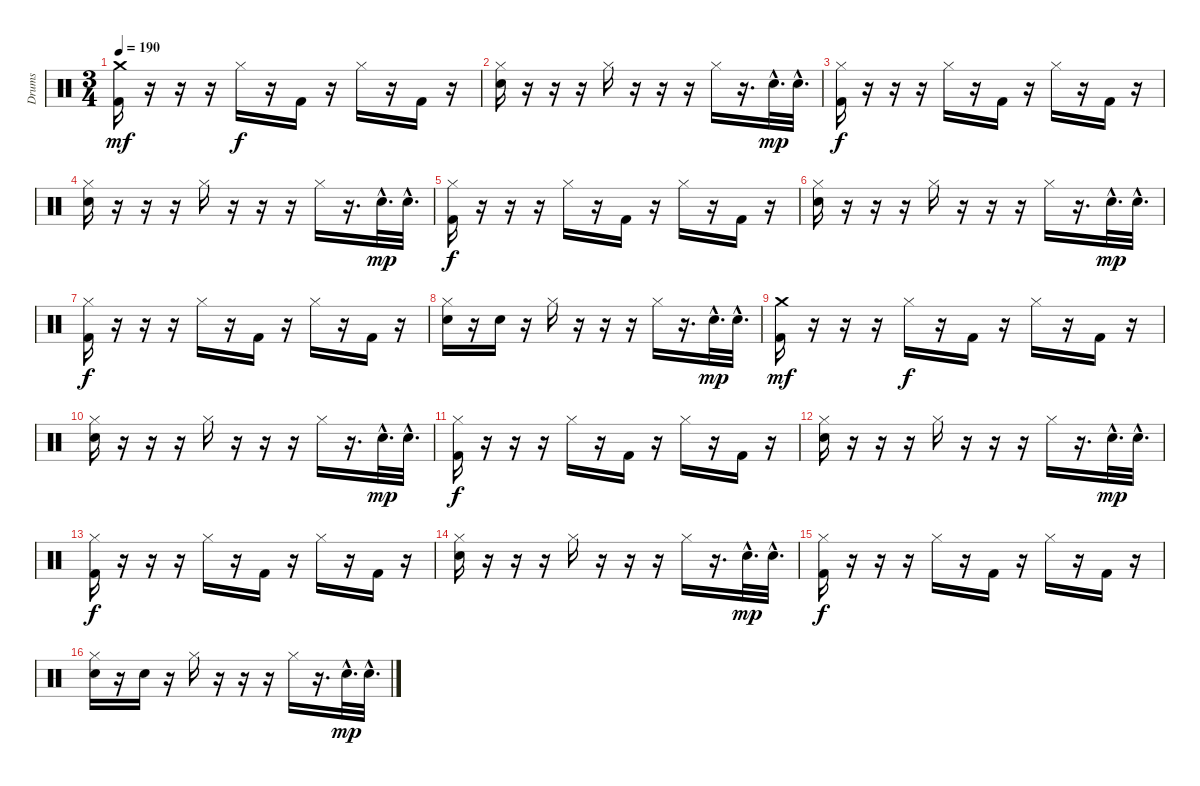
\track ("Drums" "Drums") {instrument percussion}
\staff {score}
\articulation defaults
\ts (3 4)
\tempo 190
\clef neutral
\ks c
("Crash medium (hit)" "Kick (hit) 2").16{dy mf} r.16 r.16 r.16 "Hi-Hat (closed)".16{dy f} r.16 "Kick (hit) 2".16 r.16 "Hi-Hat (closed)".16 r.16 "Kick (hit) 2".16 r.16 |
("Hi-Hat (closed)" "Snare (hit) 2").16 r.16 r.16 r.16 "Hi-Hat (closed)".16 r.16 r.16 r.16 "Hi-Hat (closed)".16 r.16{d} "Snare (hit) 2"{hac}.32{d dy mp} "Snare (hit) 2"{hac}.32{d} |
("Hi-Hat (closed)" "Kick (hit) 2").16{dy f} r.16 r.16 r.16 "Hi-Hat (closed)".16 r.16 "Kick (hit) 2".16 r.16 "Hi-Hat (closed)".16 r.16 "Kick (hit) 2".16 r.16 |
("Hi-Hat (closed)" "Snare (hit) 2").16 r.16 r.16 r.16 "Hi-Hat (closed)".16 r.16 r.16 r.16 "Hi-Hat (closed)".16 r.16{d} "Snare (hit) 2"{hac}.32{d dy mp} "Snare (hit) 2"{hac}.32{d} |
("Hi-Hat (closed)" "Kick (hit) 2").16{dy f} r.16 r.16 r.16 "Hi-Hat (closed)".16 r.16 "Kick (hit) 2".16 r.16 "Hi-Hat (closed)".16 r.16 "Kick (hit) 2".16 r.16 |
("Hi-Hat (closed)" "Snare (hit) 2").16 r.16 r.16 r.16 "Hi-Hat (closed)".16 r.16 r.16 r.16 "Hi-Hat (closed)".16 r.16{d} "Snare (hit) 2"{hac}.32{d dy mp} "Snare (hit) 2"{hac}.32{d} |
("Hi-Hat (closed)" "Kick (hit) 2").16{dy f} r.16 r.16 r.16 "Hi-Hat (closed)".16 r.16 "Kick (hit) 2".16 r.16 "Hi-Hat (closed)".16 r.16 "Kick (hit) 2".16 r.16 |
("Hi-Hat (closed)" "Snare (hit) 2").16 r.16 "Snare (hit) 2".16 r.16 "Hi-Hat (closed)".16 r.16 r.16 r.16 "Hi-Hat (closed)".16 r.16{d} "Snare (hit) 2"{hac}.32{d dy mp} "Snare (hit) 2"{hac}.32{d} |
("Crash medium (hit)" "Kick (hit) 2").16{dy mf} r.16 r.16 r.16 "Hi-Hat (closed)".16{dy f} r.16 "Kick (hit) 2".16 r.16 "Hi-Hat (closed)".16 r.16 "Kick (hit) 2".16 r.16 |
("Hi-Hat (closed)" "Snare (hit) 2").16 r.16 r.16 r.16 "Hi-Hat (closed)".16 r.16 r.16 r.16 "Hi-Hat (closed)".16 r.16{d} "Snare (hit) 2"{hac}.32{d dy mp} "Snare (hit) 2"{hac}.32{d} |
("Hi-Hat (closed)" "Kick (hit) 2").16{dy f} r.16 r.16 r.16 "Hi-Hat (closed)".16 r.16 "Kick (hit) 2".16 r.16 "Hi-Hat (closed)".16 r.16 "Kick (hit) 2".16 r.16 |
("Hi-Hat (closed)" "Snare (hit) 2").16 r.16 r.16 r.16 "Hi-Hat (closed)".16 r.16 r.16 r.16 "Hi-Hat (closed)".16 r.16{d} "Snare (hit) 2"{hac}.32{d dy mp} "Snare (hit) 2"{hac}.32{d} |
("Hi-Hat (closed)" "Kick (hit) 2").16{dy f} r.16 r.16 r.16 "Hi-Hat (closed)".16 r.16 "Kick (hit) 2".16 r.16 "Hi-Hat (closed)".16 r.16 "Kick (hit) 2".16 r.16 |
("Hi-Hat (closed)" "Snare (hit) 2").16 r.16 r.16 r.16 "Hi-Hat (closed)".16 r.16 r.16 r.16 "Hi-Hat (closed)".16 r.16{d} "Snare (hit) 2"{hac}.32{d dy mp} "Snare (hit) 2"{hac}.32{d} |
("Hi-Hat (closed)" "Kick (hit) 2").16{dy f} r.16 r.16 r.16 "Hi-Hat (closed)".16 r.16 "Kick (hit) 2".16 r.16 "Hi-Hat (closed)".16 r.16 "Kick (hit) 2".16 r.16 |
("Hi-Hat (closed)" "Snare (hit) 2").16 r.16 "Snare (hit) 2".16 r.16 "Hi-Hat (closed)".16 r.16 r.16 r.16 "Hi-Hat (closed)".16 r.16{d} "Snare (hit) 2"{hac}.32{d dy mp} "Snare (hit) 2"{hac}.32{d}
